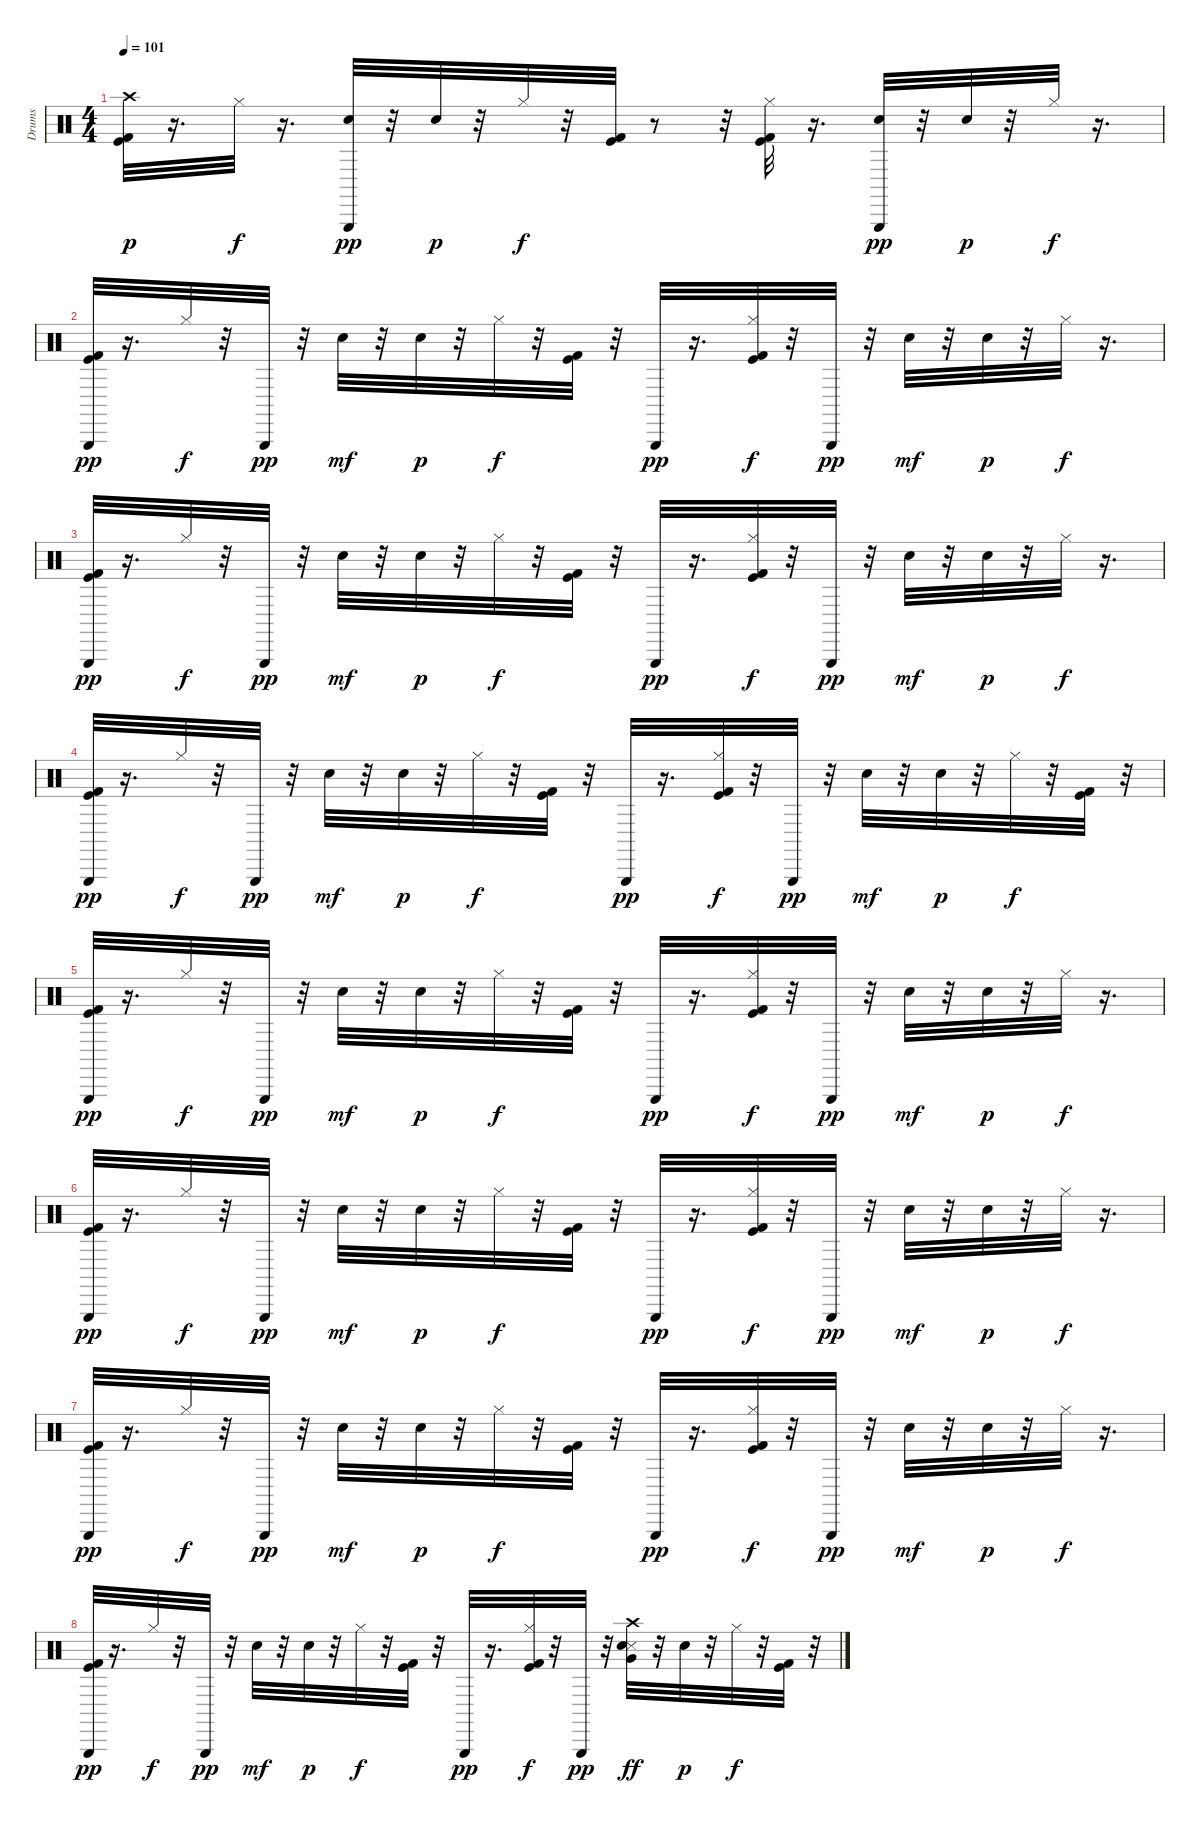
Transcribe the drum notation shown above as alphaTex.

\track ("Drums" "Drums") {instrument percussion}
\staff {score}
\articulation defaults
\ts (4 4)
\tempo 101
\clef neutral
\ks c
("Kick (hit)" "Kick (hit) 2" "Crash high (hit)").32{dy p} r.16{d} "Hi-Hat (closed)".32{dy f} r.16{d} ("Hand Clap (hit)" "Triangle (hit)").32{dy pp} r.32 "Hand Clap (hit)".32{dy p} r.32 "Hi-Hat (closed)".32{dy f} r.32 ("Kick (hit)" "Kick (hit) 2").32 r.8 r.32 ("Kick (hit)" "Kick (hit) 2" "Hi-Hat (closed)").32 r.16{d} ("Hand Clap (hit)" "Triangle (hit)").32{dy pp} r.32 "Hand Clap (hit)".32{dy p} r.32 "Hi-Hat (closed)".32{dy f} r.16{d} |
("Kick (hit)" "Kick (hit) 2" "Triangle (hit)").32{dy pp} r.16{d} "Hi-Hat (closed)".32{dy f} r.32 "Triangle (hit)".32{dy pp} r.32 "Hand Clap (hit)".32{dy mf} r.32 "Hand Clap (hit)".32{dy p} r.32 "Hi-Hat (closed)".32{dy f} r.32 ("Kick (hit)" "Kick (hit) 2").32 r.32 "Triangle (hit)".32{dy pp} r.16{d} ("Kick (hit)" "Kick (hit) 2" "Hi-Hat (closed)").32{dy f} r.32 "Triangle (hit)".32{dy pp} r.32 "Hand Clap (hit)".32{dy mf} r.32 "Hand Clap (hit)".32{dy p} r.32 "Hi-Hat (closed)".32{dy f} r.16{d} |
("Kick (hit)" "Kick (hit) 2" "Triangle (hit)").32{dy pp} r.16{d} "Hi-Hat (closed)".32{dy f} r.32 "Triangle (hit)".32{dy pp} r.32 "Hand Clap (hit)".32{dy mf} r.32 "Hand Clap (hit)".32{dy p} r.32 "Hi-Hat (closed)".32{dy f} r.32 ("Kick (hit)" "Kick (hit) 2").32 r.32 "Triangle (hit)".32{dy pp} r.16{d} ("Kick (hit)" "Kick (hit) 2" "Hi-Hat (closed)").32{dy f} r.32 "Triangle (hit)".32{dy pp} r.32 "Hand Clap (hit)".32{dy mf} r.32 "Hand Clap (hit)".32{dy p} r.32 "Hi-Hat (closed)".32{dy f} r.16{d} |
("Kick (hit)" "Kick (hit) 2" "Triangle (hit)").32{dy pp} r.16{d} "Hi-Hat (closed)".32{dy f} r.32 "Triangle (hit)".32{dy pp} r.32 "Hand Clap (hit)".32{dy mf} r.32 "Hand Clap (hit)".32{dy p} r.32 "Hi-Hat (closed)".32{dy f} r.32 ("Kick (hit)" "Kick (hit) 2").32 r.32 "Triangle (hit)".32{dy pp} r.16{d} ("Kick (hit)" "Kick (hit) 2" "Hi-Hat (closed)").32{dy f} r.32 "Triangle (hit)".32{dy pp} r.32 "Hand Clap (hit)".32{dy mf} r.32 "Hand Clap (hit)".32{dy p} r.32 "Hi-Hat (closed)".32{dy f} r.32 ("Kick (hit)" "Kick (hit) 2").32 r.32 |
("Kick (hit)" "Kick (hit) 2" "Triangle (hit)").32{dy pp} r.16{d} "Hi-Hat (closed)".32{dy f} r.32 "Triangle (hit)".32{dy pp} r.32 "Hand Clap (hit)".32{dy mf} r.32 "Hand Clap (hit)".32{dy p} r.32 "Hi-Hat (closed)".32{dy f} r.32 ("Kick (hit)" "Kick (hit) 2").32 r.32 "Triangle (hit)".32{dy pp} r.16{d} ("Kick (hit)" "Kick (hit) 2" "Hi-Hat (closed)").32{dy f} r.32 "Triangle (hit)".32{dy pp} r.32 "Hand Clap (hit)".32{dy mf} r.32 "Hand Clap (hit)".32{dy p} r.32 "Hi-Hat (closed)".32{dy f} r.16{d} |
("Kick (hit)" "Kick (hit) 2" "Triangle (hit)").32{dy pp} r.16{d} "Hi-Hat (closed)".32{dy f} r.32 "Triangle (hit)".32{dy pp} r.32 "Hand Clap (hit)".32{dy mf} r.32 "Hand Clap (hit)".32{dy p} r.32 "Hi-Hat (closed)".32{dy f} r.32 ("Kick (hit)" "Kick (hit) 2").32 r.32 "Triangle (hit)".32{dy pp} r.16{d} ("Kick (hit)" "Kick (hit) 2" "Hi-Hat (closed)").32{dy f} r.32 "Triangle (hit)".32{dy pp} r.32 "Hand Clap (hit)".32{dy mf} r.32 "Hand Clap (hit)".32{dy p} r.32 "Hi-Hat (closed)".32{dy f} r.16{d} |
("Kick (hit)" "Kick (hit) 2" "Triangle (hit)").32{dy pp} r.16{d} "Hi-Hat (closed)".32{dy f} r.32 "Triangle (hit)".32{dy pp} r.32 "Hand Clap (hit)".32{dy mf} r.32 "Hand Clap (hit)".32{dy p} r.32 "Hi-Hat (closed)".32{dy f} r.32 ("Kick (hit)" "Kick (hit) 2").32 r.32 "Triangle (hit)".32{dy pp} r.16{d} ("Kick (hit)" "Kick (hit) 2" "Hi-Hat (closed)").32{dy f} r.32 "Triangle (hit)".32{dy pp} r.32 "Hand Clap (hit)".32{dy mf} r.32 "Hand Clap (hit)".32{dy p} r.32 "Hi-Hat (closed)".32{dy f} r.16{d} |
("Kick (hit)" "Kick (hit) 2" "Triangle (hit)").32{dy pp} r.16{d} "Hi-Hat (closed)".32{dy f} r.32 "Triangle (hit)".32{dy pp} r.32 "Hand Clap (hit)".32{dy mf} r.32 "Hand Clap (hit)".32{dy p} r.32 "Hi-Hat (closed)".32{dy f} r.32 ("Kick (hit)" "Kick (hit) 2").32 r.32 "Triangle (hit)".32{dy pp} r.16{d} ("Kick (hit)" "Kick (hit) 2" "Hi-Hat (closed)").32{dy f} r.32 "Triangle (hit)".32{dy pp} r.32 ("Snare (side stick) 3" "Hand Clap (hit)" "Very Low Tom (hit)" "Crash high (hit)").32{dy ff} r.32 "Hand Clap (hit)".32{dy p} r.32 "Hi-Hat (closed)".32{dy f} r.32 ("Kick (hit)" "Kick (hit) 2").32 r.32
